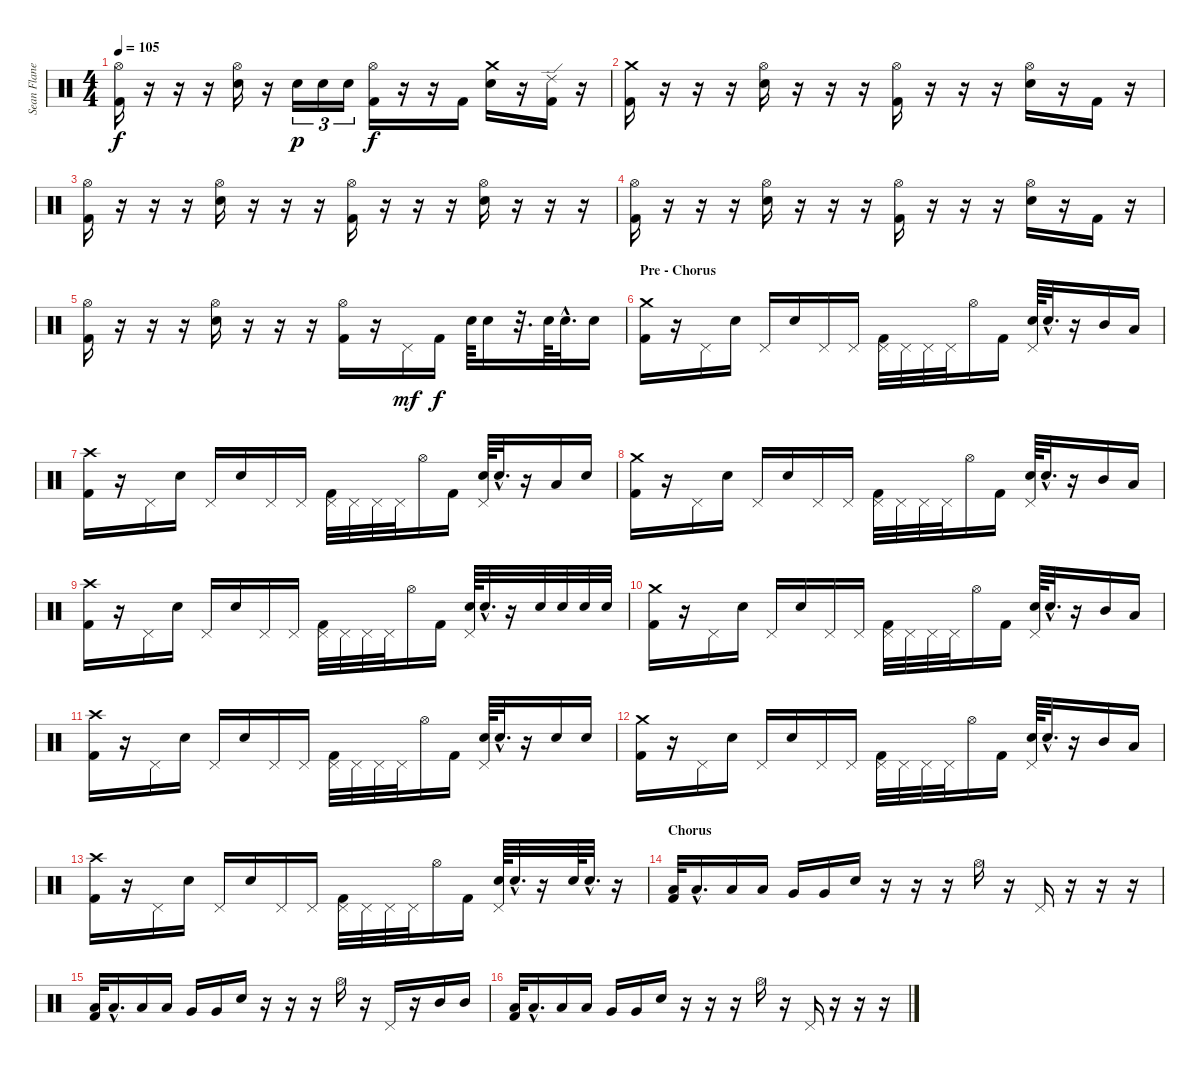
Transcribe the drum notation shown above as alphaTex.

\track ("Sean Flanegan [Drums]" "Sean Flane") {instrument percussion}
\staff {score}
\articulation defaults
\ts (4 4)
\tempo 105
\clef neutral
\ks c
("Hi-Hat (open)" "Kick (hit) 2").16{dy f} r.16 r.16 r.16 ("Hi-Hat (open)" "Electric Snare (hit)").16 r.16 "Electric Snare (hit)".16{tu (3 2) dy p} "Electric Snare (hit)".16{tu (3 2)} "Electric Snare (hit)".16{tu (3 2)} ("Hi-Hat (open)" "Kick (hit) 2").16{dy f} r.16 r.16 "Kick (hit) 2".16 ("Crash medium (hit)" "Electric Snare (hit)").16 r.16 ("Ride (edge) 2" "Kick (hit) 2").16 r.16 |
("Crash medium (hit)" "Kick (hit) 2").16 r.16 r.16 r.16 ("Hi-Hat (open)" "Electric Snare (hit)").16 r.16 r.16 r.16 ("Hi-Hat (open)" "Kick (hit) 2").16 r.16 r.16 r.16 ("Hi-Hat (open)" "Electric Snare (hit)").16 r.16 "Kick (hit) 2".16 r.16 |
("Hi-Hat (open)" "Kick (hit) 2").16 r.16 r.16 r.16 ("Hi-Hat (open)" "Electric Snare (hit)").16 r.16 r.16 r.16 ("Hi-Hat (open)" "Kick (hit) 2").16 r.16 r.16 r.16 ("Hi-Hat (open)" "Electric Snare (hit)").16 r.16 r.16 r.16 |
("Hi-Hat (open)" "Kick (hit) 2").16 r.16 r.16 r.16 ("Hi-Hat (open)" "Electric Snare (hit)").16 r.16 r.16 r.16 ("Hi-Hat (open)" "Kick (hit) 2").16 r.16 r.16 r.16 ("Hi-Hat (open)" "Electric Snare (hit)").16 r.16 "Kick (hit) 2".16 r.16 |
("Hi-Hat (open)" "Kick (hit) 2").16 r.16 r.16 r.16 ("Hi-Hat (open)" "Electric Snare (hit)").16 r.16 r.16 r.16 ("Hi-Hat (open)" "Kick (hit) 2").16 r.16 "Pedal Hi-Hat (hit)".16{dy mf} "Kick (hit) 2".16{dy f} "Electric Snare (hit)".64 "Electric Snare (hit)".16 r.32{d} "Electric Snare (hit)".64 "Electric Snare (hit)"{hac}.32{d} "Electric Snare (hit)".16 |
\section ("" "Pre - Chorus")
("Crash medium (hit)" "Kick (hit) 2").16 r.16 "Pedal Hi-Hat (hit)".16 "Electric Snare (hit)".16 "Pedal Hi-Hat (hit)".16 "Electric Snare (hit)".16 "Pedal Hi-Hat (hit)".16 "Pedal Hi-Hat (hit)".16 ("Pedal Hi-Hat (hit)" "Kick (hit) 2").32 "Pedal Hi-Hat (hit)".32 "Pedal Hi-Hat (hit)".32 "Pedal Hi-Hat (hit)".32 "Hi-Hat (open)".16 "Kick (hit) 2".16 ("Pedal Hi-Hat (hit)" "Electric Snare (hit)").64 "Electric Snare (hit)"{hac}.32{d} r.16 "Mid Tom (hit)".16 "Low Tom (hit)".16 |
("Crash high (hit)" "Kick (hit) 2").16 r.16 "Pedal Hi-Hat (hit)".16 "Electric Snare (hit)".16 "Pedal Hi-Hat (hit)".16 "Electric Snare (hit)".16 "Pedal Hi-Hat (hit)".16 "Pedal Hi-Hat (hit)".16 ("Pedal Hi-Hat (hit)" "Kick (hit) 2").32 "Pedal Hi-Hat (hit)".32 "Pedal Hi-Hat (hit)".32 "Pedal Hi-Hat (hit)".32 "Hi-Hat (open)".16 "Kick (hit) 2".16 ("Pedal Hi-Hat (hit)" "Electric Snare (hit)").64 "Electric Snare (hit)"{hac}.32{d} r.16 "Low Tom (hit)".16 "Electric Snare (hit)".16 |
("Crash medium (hit)" "Kick (hit) 2").16 r.16 "Pedal Hi-Hat (hit)".16 "Electric Snare (hit)".16 "Pedal Hi-Hat (hit)".16 "Electric Snare (hit)".16 "Pedal Hi-Hat (hit)".16 "Pedal Hi-Hat (hit)".16 ("Pedal Hi-Hat (hit)" "Kick (hit) 2").32 "Pedal Hi-Hat (hit)".32 "Pedal Hi-Hat (hit)".32 "Pedal Hi-Hat (hit)".32 "Hi-Hat (open)".16 "Kick (hit) 2".16 ("Pedal Hi-Hat (hit)" "Electric Snare (hit)").64 "Electric Snare (hit)"{hac}.32{d} r.16 "Mid Tom (hit)".16 "Low Tom (hit)".16 |
("Crash high (hit)" "Kick (hit) 2").16 r.16 "Pedal Hi-Hat (hit)".16 "Electric Snare (hit)".16 "Pedal Hi-Hat (hit)".16 "Electric Snare (hit)".16 "Pedal Hi-Hat (hit)".16 "Pedal Hi-Hat (hit)".16 ("Pedal Hi-Hat (hit)" "Kick (hit) 2").32 "Pedal Hi-Hat (hit)".32 "Pedal Hi-Hat (hit)".32 "Pedal Hi-Hat (hit)".32 "Hi-Hat (open)".16 "Kick (hit) 2".16 ("Pedal Hi-Hat (hit)" "Electric Snare (hit)").64 "Electric Snare (hit)"{hac}.32{d} r.16 "Electric Snare (hit)".32 "Electric Snare (hit)".32 "Electric Snare (hit)".32 "Electric Snare (hit)".32 |
("Crash medium (hit)" "Kick (hit) 2").16 r.16 "Pedal Hi-Hat (hit)".16 "Electric Snare (hit)".16 "Pedal Hi-Hat (hit)".16 "Electric Snare (hit)".16 "Pedal Hi-Hat (hit)".16 "Pedal Hi-Hat (hit)".16 ("Pedal Hi-Hat (hit)" "Kick (hit) 2").32 "Pedal Hi-Hat (hit)".32 "Pedal Hi-Hat (hit)".32 "Pedal Hi-Hat (hit)".32 "Hi-Hat (open)".16 "Kick (hit) 2".16 ("Pedal Hi-Hat (hit)" "Electric Snare (hit)").64 "Electric Snare (hit)"{hac}.32{d} r.16 "Mid Tom (hit)".16 "Low Tom (hit)".16 |
("Crash high (hit)" "Kick (hit) 2").16 r.16 "Pedal Hi-Hat (hit)".16 "Electric Snare (hit)".16 "Pedal Hi-Hat (hit)".16 "Electric Snare (hit)".16 "Pedal Hi-Hat (hit)".16 "Pedal Hi-Hat (hit)".16 ("Pedal Hi-Hat (hit)" "Kick (hit) 2").32 "Pedal Hi-Hat (hit)".32 "Pedal Hi-Hat (hit)".32 "Pedal Hi-Hat (hit)".32 "Hi-Hat (open)".16 "Kick (hit) 2".16 ("Pedal Hi-Hat (hit)" "Electric Snare (hit)").64 "Electric Snare (hit)"{hac}.32{d} r.16 "Electric Snare (hit)".16 "Electric Snare (hit)".16 |
("Crash medium (hit)" "Kick (hit) 2").16 r.16 "Pedal Hi-Hat (hit)".16 "Electric Snare (hit)".16 "Pedal Hi-Hat (hit)".16 "Electric Snare (hit)".16 "Pedal Hi-Hat (hit)".16 "Pedal Hi-Hat (hit)".16 ("Pedal Hi-Hat (hit)" "Kick (hit) 2").32 "Pedal Hi-Hat (hit)".32 "Pedal Hi-Hat (hit)".32 "Pedal Hi-Hat (hit)".32 "Hi-Hat (open)".16 "Kick (hit) 2".16 ("Pedal Hi-Hat (hit)" "Electric Snare (hit)").64 "Electric Snare (hit)"{hac}.32{d} r.16 "Mid Tom (hit)".16 "Low Tom (hit)".16 |
("Crash high (hit)" "Kick (hit) 2").16 r.16 "Pedal Hi-Hat (hit)".16 "Electric Snare (hit)".16 "Pedal Hi-Hat (hit)".16 "Electric Snare (hit)".16 "Pedal Hi-Hat (hit)".16 "Pedal Hi-Hat (hit)".16 ("Pedal Hi-Hat (hit)" "Kick (hit) 2").32 "Pedal Hi-Hat (hit)".32 "Pedal Hi-Hat (hit)".32 "Pedal Hi-Hat (hit)".32 "Hi-Hat (open)".16 "Kick (hit) 2".16 ("Pedal Hi-Hat (hit)" "Electric Snare (hit)").64 "Electric Snare (hit)"{hac}.32{d} r.16 "Electric Snare (hit)".64 "Electric Snare (hit)"{hac}.32{d} r.16 |
\section ("" "Chorus")
("Low Tom (hit)" "Kick (hit) 2").32 "Low Tom (hit)"{hac}.16{d} "Low Tom (hit)".16 "Low Tom (hit)".16 "Very Low Tom (hit)".16 "Very Low Tom (hit)".16 "Electric Snare (hit)".16 r.16 r.16 r.16 "Hi-Hat (open)".16 r.16 "Pedal Hi-Hat (hit)".16 r.16 r.16 r.16 |
("Low Tom (hit)" "Kick (hit) 2").32 "Low Tom (hit)"{hac}.16{d} "Low Tom (hit)".16 "Low Tom (hit)".16 "Very Low Tom (hit)".16 "Very Low Tom (hit)".16 "Electric Snare (hit)".16 r.16 r.16 r.16 "Hi-Hat (open)".16 r.16 "Pedal Hi-Hat (hit)".16 r.16 "Mid Tom (hit)".16 "Mid Tom (hit)".16 |
("Low Tom (hit)" "Kick (hit) 2").32 "Low Tom (hit)"{hac}.16{d} "Low Tom (hit)".16 "Low Tom (hit)".16 "Very Low Tom (hit)".16 "Very Low Tom (hit)".16 "Electric Snare (hit)".16 r.16 r.16 r.16 "Hi-Hat (open)".16 r.16 "Pedal Hi-Hat (hit)".16 r.16 r.16 r.16
